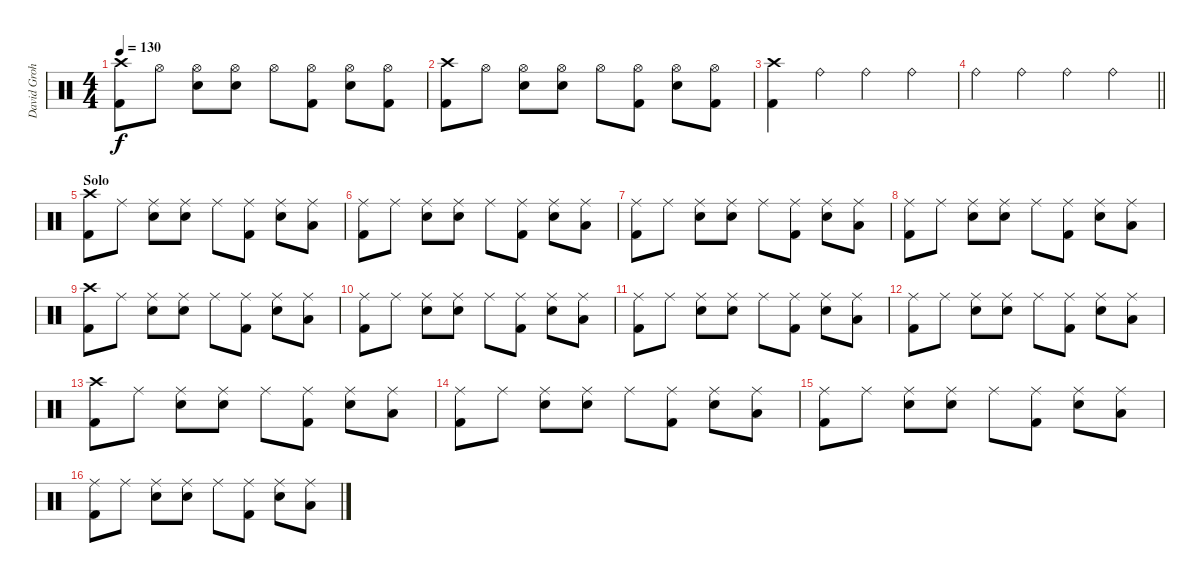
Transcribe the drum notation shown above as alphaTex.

\track ("David Grohl" "David Groh") {instrument percussion}
\staff {score}
\articulation defaults
\ts (4 4)
\tempo 130
\clef neutral
\ks c
("Crash high (hit)" "Kick (hit) 2").8{dy f} "Hi-Hat (open)".8 ("Hi-Hat (open)" "Electric Snare (hit)").8 ("Hi-Hat (open)" "Electric Snare (hit)").8 "Hi-Hat (open)".8 ("Hi-Hat (open)" "Kick (hit) 2").8 ("Hi-Hat (open)" "Electric Snare (hit)").8 ("Hi-Hat (open)" "Kick (hit) 2").8 |
("Crash high (hit)" "Kick (hit) 2").8 "Hi-Hat (open)".8 ("Hi-Hat (open)" "Electric Snare (hit)").8 ("Hi-Hat (open)" "Electric Snare (hit)").8 "Hi-Hat (open)".8 ("Hi-Hat (open)" "Kick (hit) 2").8 ("Hi-Hat (open)" "Electric Snare (hit)").8 ("Hi-Hat (open)" "Kick (hit) 2").8 |
("Crash high (hit)" "Kick (hit) 2").4 "Ride (bell)".4 "Ride (bell)".4 "Ride (bell)".4 |
\barLineRight lightlight "Ride (bell)".4 "Ride (bell)".4 "Ride (bell)".4 "Ride (bell)".4
|
\section ("" "Solo")
("Crash high (hit)" "Kick (hit) 2").8 "Ride (middle)".8 ("Ride (middle)" "Electric Snare (hit)").8 ("Ride (middle)" "Electric Snare (hit)").8 "Ride (middle)".8 ("Ride (middle)" "Kick (hit) 2").8 ("Ride (middle)" "Electric Snare (hit)").8 ("Ride (middle)" "Low Tom (hit)").8 |
("Ride (middle)" "Kick (hit) 2").8 "Ride (middle)".8 ("Ride (middle)" "Electric Snare (hit)").8 ("Ride (middle)" "Electric Snare (hit)").8 "Ride (middle)".8 ("Ride (middle)" "Kick (hit) 2").8 ("Ride (middle)" "Electric Snare (hit)").8 ("Ride (middle)" "Low Tom (hit)").8 |
("Ride (middle)" "Kick (hit) 2").8 "Ride (middle)".8 ("Ride (middle)" "Electric Snare (hit)").8 ("Ride (middle)" "Electric Snare (hit)").8 "Ride (middle)".8 ("Ride (middle)" "Kick (hit) 2").8 ("Ride (middle)" "Electric Snare (hit)").8 ("Ride (middle)" "Low Tom (hit)").8 |
("Ride (middle)" "Kick (hit) 2").8 "Ride (middle)".8 ("Ride (middle)" "Electric Snare (hit)").8 ("Ride (middle)" "Electric Snare (hit)").8 "Ride (middle)".8 ("Ride (middle)" "Kick (hit) 2").8 ("Ride (middle)" "Electric Snare (hit)").8 ("Ride (middle)" "Low Tom (hit)").8 |
("Crash high (hit)" "Kick (hit) 2").8 "Ride (middle)".8 ("Ride (middle)" "Electric Snare (hit)").8 ("Ride (middle)" "Electric Snare (hit)").8 "Ride (middle)".8 ("Ride (middle)" "Kick (hit) 2").8 ("Ride (middle)" "Electric Snare (hit)").8 ("Ride (middle)" "Low Tom (hit)").8 |
("Ride (middle)" "Kick (hit) 2").8 "Ride (middle)".8 ("Ride (middle)" "Electric Snare (hit)").8 ("Ride (middle)" "Electric Snare (hit)").8 "Ride (middle)".8 ("Ride (middle)" "Kick (hit) 2").8 ("Ride (middle)" "Electric Snare (hit)").8 ("Ride (middle)" "Low Tom (hit)").8 |
("Ride (middle)" "Kick (hit) 2").8 "Ride (middle)".8 ("Ride (middle)" "Electric Snare (hit)").8 ("Ride (middle)" "Electric Snare (hit)").8 "Ride (middle)".8 ("Ride (middle)" "Kick (hit) 2").8 ("Ride (middle)" "Electric Snare (hit)").8 ("Ride (middle)" "Low Tom (hit)").8 |
("Ride (middle)" "Kick (hit) 2").8 "Ride (middle)".8 ("Ride (middle)" "Electric Snare (hit)").8 ("Ride (middle)" "Electric Snare (hit)").8 "Ride (middle)".8 ("Ride (middle)" "Kick (hit) 2").8 ("Ride (middle)" "Electric Snare (hit)").8 ("Ride (middle)" "Low Tom (hit)").8 |
("Crash high (hit)" "Kick (hit) 2").8 "Ride (middle)".8 ("Ride (middle)" "Electric Snare (hit)").8 ("Ride (middle)" "Electric Snare (hit)").8 "Ride (middle)".8 ("Ride (middle)" "Kick (hit) 2").8 ("Ride (middle)" "Electric Snare (hit)").8 ("Ride (middle)" "Low Tom (hit)").8 |
("Ride (middle)" "Kick (hit) 2").8 "Ride (middle)".8 ("Ride (middle)" "Electric Snare (hit)").8 ("Ride (middle)" "Electric Snare (hit)").8 "Ride (middle)".8 ("Ride (middle)" "Kick (hit) 2").8 ("Ride (middle)" "Electric Snare (hit)").8 ("Ride (middle)" "Low Tom (hit)").8 |
("Ride (middle)" "Kick (hit) 2").8 "Ride (middle)".8 ("Ride (middle)" "Electric Snare (hit)").8 ("Ride (middle)" "Electric Snare (hit)").8 "Ride (middle)".8 ("Ride (middle)" "Kick (hit) 2").8 ("Ride (middle)" "Electric Snare (hit)").8 ("Ride (middle)" "Low Tom (hit)").8 |
("Ride (middle)" "Kick (hit) 2").8 "Ride (middle)".8 ("Ride (middle)" "Electric Snare (hit)").8 ("Ride (middle)" "Electric Snare (hit)").8 "Ride (middle)".8 ("Ride (middle)" "Kick (hit) 2").8 ("Ride (middle)" "Electric Snare (hit)").8 ("Ride (middle)" "Low Tom (hit)").8
